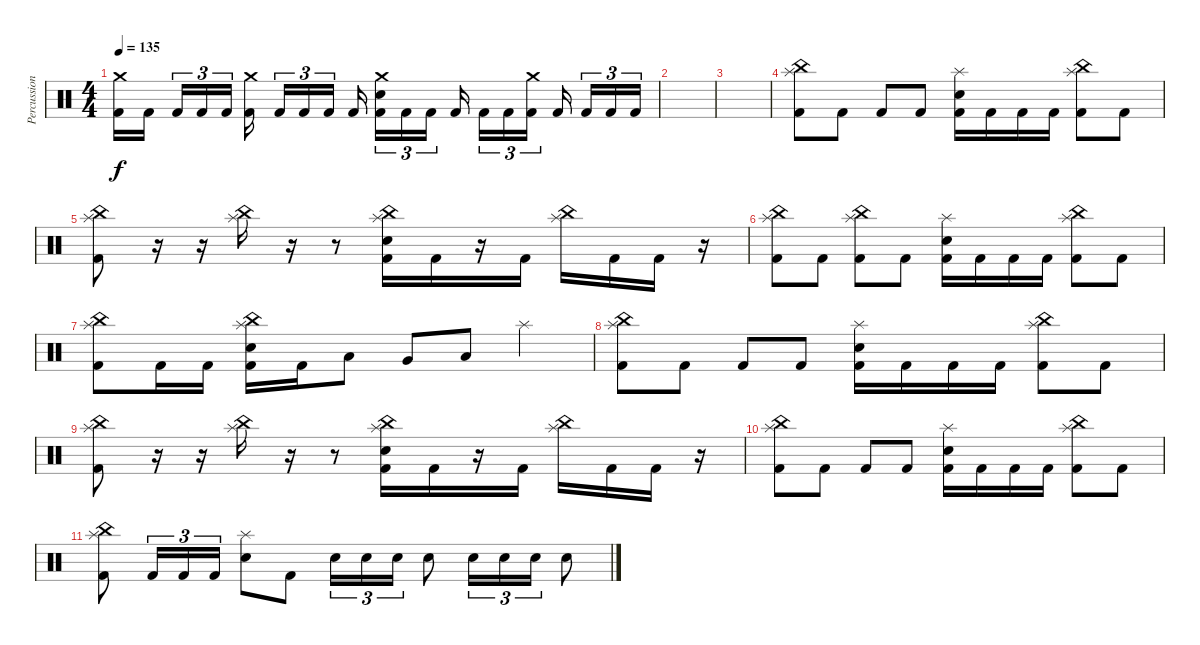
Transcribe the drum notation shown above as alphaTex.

\track ("Percussion" "Percussion") {instrument percussion}
\staff {score}
\articulation defaults
\ts (4 4)
\tempo 135
\clef neutral
\ks c
("Crash medium (hit)" "Kick (hit) 2").16{dy f} "Kick (hit) 2".16{beam splitsecondary} "Kick (hit) 2".16{tu (3 2)} "Kick (hit) 2".16{tu (3 2)} "Kick (hit) 2".16{tu (3 2)} ("Crash medium (hit)" "Kick (hit) 2").16{beam splitsecondary} "Kick (hit) 2".16{tu (3 2)} "Kick (hit) 2".16{tu (3 2)} "Kick (hit) 2".16{tu (3 2) beam splitsecondary} "Kick (hit) 2".16 ("Crash medium (hit)" "Electric Snare (hit)" "Kick (hit) 2").16{tu (3 2)} "Kick (hit) 2".16{tu (3 2)} "Kick (hit) 2".16{tu (3 2) beam splitsecondary} "Kick (hit) 2".16{beam splitsecondary} "Kick (hit) 2".16{tu (3 2)} "Kick (hit) 2".16{tu (3 2)} ("Crash medium (hit)" "Kick (hit) 2").16{tu (3 2) beam splitsecondary} "Kick (hit) 2".16{beam splitsecondary} "Kick (hit) 2".16{tu (3 2)} "Kick (hit) 2".16{tu (3 2)} "Kick (hit) 2".16{tu (3 2)} |
|
|
("Splash (hit)" "China (hit)" "Kick (hit) 2").8 "Kick (hit) 2".8 "Kick (hit) 2".8 "Kick (hit) 2".8 ("Splash (hit)" "Electric Snare (hit)" "Kick (hit) 2").16 "Kick (hit) 2".16 "Kick (hit) 2".16 "Kick (hit) 2".16 ("Splash (hit)" "China (hit)" "Kick (hit) 2").8 "Kick (hit) 2".8 |
("Splash (hit)" "China (hit)" "Kick (hit) 2").8 r.16 r.16 ("Splash (hit)" "China (hit)").16 r.16 r.8 ("Splash (hit)" "China (hit)" "Electric Snare (hit)" "Kick (hit) 2").16 "Kick (hit) 2".16 r.16 "Kick (hit) 2".16 ("Splash (hit)" "China (hit)").16 "Kick (hit) 2".16 "Kick (hit) 2".16 r.16 |
("Splash (hit)" "China (hit)" "Kick (hit) 2").8 "Kick (hit) 2".8 ("China (hit)" "Splash (hit)" "Kick (hit) 2").8 "Kick (hit) 2".8 ("Splash (hit)" "Electric Snare (hit)" "Kick (hit) 2").16 "Kick (hit) 2".16 "Kick (hit) 2".16 "Kick (hit) 2".16 ("Splash (hit)" "China (hit)" "Kick (hit) 2").8 "Kick (hit) 2".8 |
("Splash (hit)" "China (hit)" "Kick (hit) 2").8 "Kick (hit) 2".16 "Kick (hit) 2".16 ("Splash (hit)" "China (hit)" "Electric Snare (hit)" "Kick (hit) 2").16 "Kick (hit) 2".16 "Low Tom (hit)".8 "Very Low Tom (hit)".8 "Low Floor Tom (hit)".8 "Splash (hit)".4 |
("Splash (hit)" "China (hit)" "Kick (hit) 2").8 "Kick (hit) 2".8 "Kick (hit) 2".8 "Kick (hit) 2".8 ("Splash (hit)" "Electric Snare (hit)" "Kick (hit) 2").16 "Kick (hit) 2".16 "Kick (hit) 2".16 "Kick (hit) 2".16 ("Splash (hit)" "China (hit)" "Kick (hit) 2").8 "Kick (hit) 2".8 |
("Splash (hit)" "China (hit)" "Kick (hit) 2").8 r.16 r.16 ("Splash (hit)" "China (hit)").16 r.16 r.8 ("Splash (hit)" "China (hit)" "Electric Snare (hit)" "Kick (hit) 2").16 "Kick (hit) 2".16 r.16 "Kick (hit) 2".16 ("Splash (hit)" "China (hit)").16 "Kick (hit) 2".16 "Kick (hit) 2".16 r.16 |
("Splash (hit)" "China (hit)" "Kick (hit) 2").8 "Kick (hit) 2".8 "Kick (hit) 2".8 "Kick (hit) 2".8 ("Splash (hit)" "Electric Snare (hit)" "Kick (hit) 2").16 "Kick (hit) 2".16 "Kick (hit) 2".16 "Kick (hit) 2".16 ("Splash (hit)" "China (hit)" "Kick (hit) 2").8 "Kick (hit) 2".8 |
("Splash (hit)" "China (hit)" "Kick (hit) 2").8 "Kick (hit) 2".16{tu (3 2)} "Kick (hit) 2".16{tu (3 2)} "Kick (hit) 2".16{tu (3 2)} ("Splash (hit)" "Electric Snare (hit)").8 "Kick (hit) 2".8 "Electric Snare (hit)".16{tu (3 2)} "Electric Snare (hit)".16{tu (3 2)} "Electric Snare (hit)".16{tu (3 2)} "Electric Snare (hit)".8 "Electric Snare (hit)".16{tu (3 2)} "Electric Snare (hit)".16{tu (3 2)} "Electric Snare (hit)".16{tu (3 2)} "Electric Snare (hit)".8
